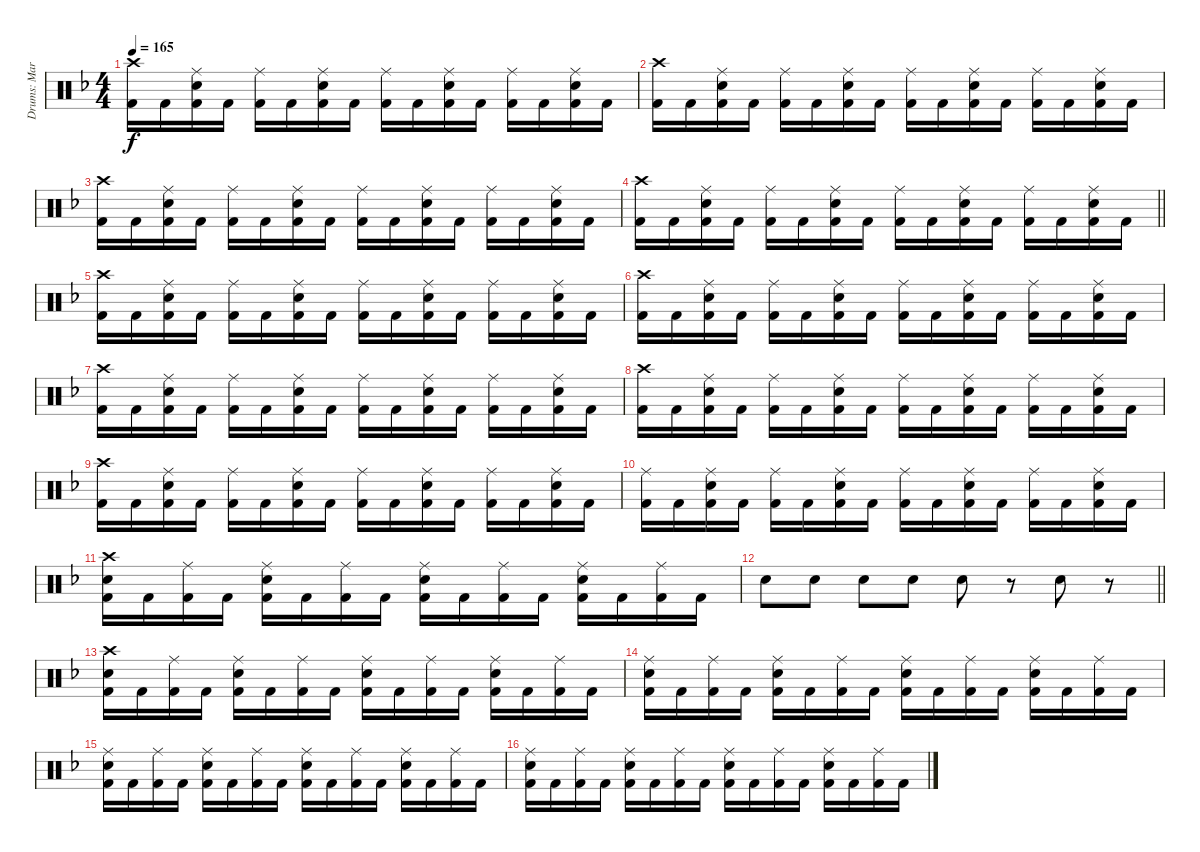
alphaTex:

\track ("Drums: Martin Herzinger" "Drums: Mar") {instrument percussion}
\staff {score}
\articulation defaults
\ts (4 4)
\tempo 165
\clef neutral
\ks dminor
("Crash high (hit)" "Kick (hit) 2").16{dy f} "Kick (hit) 2".16 ("Ride (middle)" "Snare (hit) 2" "Kick (hit) 2").16 "Kick (hit) 2".16 ("Ride (middle)" "Kick (hit) 2").16 "Kick (hit) 2".16 ("Ride (middle)" "Snare (hit) 2" "Kick (hit) 2").16 "Kick (hit) 2".16 ("Ride (middle)" "Kick (hit) 2").16 "Kick (hit) 2".16 ("Ride (middle)" "Snare (hit) 2" "Kick (hit) 2").16 "Kick (hit) 2".16 ("Ride (middle)" "Kick (hit) 2").16 "Kick (hit) 2".16 ("Ride (middle)" "Snare (hit) 2" "Kick (hit) 2").16 "Kick (hit) 2".16 |
("Crash high (hit)" "Kick (hit) 2").16 "Kick (hit) 2".16 ("Ride (middle)" "Snare (hit) 2" "Kick (hit) 2").16 "Kick (hit) 2".16 ("Ride (middle)" "Kick (hit) 2").16 "Kick (hit) 2".16 ("Ride (middle)" "Snare (hit) 2" "Kick (hit) 2").16 "Kick (hit) 2".16 ("Ride (middle)" "Kick (hit) 2").16 "Kick (hit) 2".16 ("Ride (middle)" "Snare (hit) 2" "Kick (hit) 2").16 "Kick (hit) 2".16 ("Ride (middle)" "Kick (hit) 2").16 "Kick (hit) 2".16 ("Ride (middle)" "Snare (hit) 2" "Kick (hit) 2").16 "Kick (hit) 2".16 |
("Crash high (hit)" "Kick (hit) 2").16 "Kick (hit) 2".16 ("Ride (middle)" "Snare (hit) 2" "Kick (hit) 2").16 "Kick (hit) 2".16 ("Ride (middle)" "Kick (hit) 2").16 "Kick (hit) 2".16 ("Ride (middle)" "Snare (hit) 2" "Kick (hit) 2").16 "Kick (hit) 2".16 ("Ride (middle)" "Kick (hit) 2").16 "Kick (hit) 2".16 ("Ride (middle)" "Snare (hit) 2" "Kick (hit) 2").16 "Kick (hit) 2".16 ("Ride (middle)" "Kick (hit) 2").16 "Kick (hit) 2".16 ("Ride (middle)" "Snare (hit) 2" "Kick (hit) 2").16 "Kick (hit) 2".16 |
\barLineRight lightlight
("Crash high (hit)" "Kick (hit) 2").16 "Kick (hit) 2".16 ("Ride (middle)" "Snare (hit) 2" "Kick (hit) 2").16 "Kick (hit) 2".16 ("Ride (middle)" "Kick (hit) 2").16 "Kick (hit) 2".16 ("Ride (middle)" "Snare (hit) 2" "Kick (hit) 2").16 "Kick (hit) 2".16 ("Ride (middle)" "Kick (hit) 2").16 "Kick (hit) 2".16 ("Ride (middle)" "Snare (hit) 2" "Kick (hit) 2").16 "Kick (hit) 2".16 ("Ride (middle)" "Kick (hit) 2").16 "Kick (hit) 2".16 ("Ride (middle)" "Snare (hit) 2" "Kick (hit) 2").16 "Kick (hit) 2".16 |
("Crash high (hit)" "Kick (hit) 2").16 "Kick (hit) 2".16 ("Ride (middle)" "Snare (hit) 2" "Kick (hit) 2").16 "Kick (hit) 2".16 ("Ride (middle)" "Kick (hit) 2").16 "Kick (hit) 2".16 ("Ride (middle)" "Snare (hit) 2" "Kick (hit) 2").16 "Kick (hit) 2".16 ("Ride (middle)" "Kick (hit) 2").16 "Kick (hit) 2".16 ("Ride (middle)" "Snare (hit) 2" "Kick (hit) 2").16 "Kick (hit) 2".16 ("Ride (middle)" "Kick (hit) 2").16 "Kick (hit) 2".16 ("Ride (middle)" "Snare (hit) 2" "Kick (hit) 2").16 "Kick (hit) 2".16 |
("Crash high (hit)" "Kick (hit) 2").16 "Kick (hit) 2".16 ("Ride (middle)" "Snare (hit) 2" "Kick (hit) 2").16 "Kick (hit) 2".16 ("Ride (middle)" "Kick (hit) 2").16 "Kick (hit) 2".16 ("Ride (middle)" "Snare (hit) 2" "Kick (hit) 2").16 "Kick (hit) 2".16 ("Ride (middle)" "Kick (hit) 2").16 "Kick (hit) 2".16 ("Ride (middle)" "Snare (hit) 2" "Kick (hit) 2").16 "Kick (hit) 2".16 ("Ride (middle)" "Kick (hit) 2").16 "Kick (hit) 2".16 ("Ride (middle)" "Snare (hit) 2" "Kick (hit) 2").16 "Kick (hit) 2".16 |
("Crash high (hit)" "Kick (hit) 2").16 "Kick (hit) 2".16 ("Ride (middle)" "Snare (hit) 2" "Kick (hit) 2").16 "Kick (hit) 2".16 ("Ride (middle)" "Kick (hit) 2").16 "Kick (hit) 2".16 ("Ride (middle)" "Snare (hit) 2" "Kick (hit) 2").16 "Kick (hit) 2".16 ("Ride (middle)" "Kick (hit) 2").16 "Kick (hit) 2".16 ("Ride (middle)" "Snare (hit) 2" "Kick (hit) 2").16 "Kick (hit) 2".16 ("Ride (middle)" "Kick (hit) 2").16 "Kick (hit) 2".16 ("Ride (middle)" "Snare (hit) 2" "Kick (hit) 2").16 "Kick (hit) 2".16 |
("Crash high (hit)" "Kick (hit) 2").16 "Kick (hit) 2".16 ("Ride (middle)" "Snare (hit) 2" "Kick (hit) 2").16 "Kick (hit) 2".16 ("Ride (middle)" "Kick (hit) 2").16 "Kick (hit) 2".16 ("Ride (middle)" "Snare (hit) 2" "Kick (hit) 2").16 "Kick (hit) 2".16 ("Ride (middle)" "Kick (hit) 2").16 "Kick (hit) 2".16 ("Ride (middle)" "Snare (hit) 2" "Kick (hit) 2").16 "Kick (hit) 2".16 ("Ride (middle)" "Kick (hit) 2").16 "Kick (hit) 2".16 ("Ride (middle)" "Snare (hit) 2" "Kick (hit) 2").16 "Kick (hit) 2".16 |
("Crash high (hit)" "Kick (hit) 2").16 "Kick (hit) 2".16 ("Ride (middle)" "Snare (hit) 2" "Kick (hit) 2").16 "Kick (hit) 2".16 ("Ride (middle)" "Kick (hit) 2").16 "Kick (hit) 2".16 ("Ride (middle)" "Snare (hit) 2" "Kick (hit) 2").16 "Kick (hit) 2".16 ("Ride (middle)" "Kick (hit) 2").16 "Kick (hit) 2".16 ("Ride (middle)" "Snare (hit) 2" "Kick (hit) 2").16 "Kick (hit) 2".16 ("Ride (middle)" "Kick (hit) 2").16 "Kick (hit) 2".16 ("Ride (middle)" "Snare (hit) 2" "Kick (hit) 2").16 "Kick (hit) 2".16 |
("Ride (middle)" "Kick (hit) 2").16 "Kick (hit) 2".16 ("Ride (middle)" "Snare (hit) 2" "Kick (hit) 2").16 "Kick (hit) 2".16 ("Ride (middle)" "Kick (hit) 2").16 "Kick (hit) 2".16 ("Ride (middle)" "Snare (hit) 2" "Kick (hit) 2").16 "Kick (hit) 2".16 ("Ride (middle)" "Kick (hit) 2").16 "Kick (hit) 2".16 ("Ride (middle)" "Snare (hit) 2" "Kick (hit) 2").16 "Kick (hit) 2".16 ("Ride (middle)" "Kick (hit) 2").16 "Kick (hit) 2".16 ("Ride (middle)" "Snare (hit) 2" "Kick (hit) 2").16 "Kick (hit) 2".16 |
("Crash high (hit)" "Snare (hit) 2" "Kick (hit) 2").16 "Kick (hit) 2".16 ("Ride (middle)" "Kick (hit) 2").16 "Kick (hit) 2".16 ("Ride (middle)" "Snare (hit) 2" "Kick (hit) 2").16 "Kick (hit) 2".16 ("Ride (middle)" "Kick (hit) 2").16 "Kick (hit) 2".16 ("Ride (middle)" "Snare (hit) 2" "Kick (hit) 2").16 "Kick (hit) 2".16 ("Ride (middle)" "Kick (hit) 2").16 "Kick (hit) 2".16 ("Ride (middle)" "Snare (hit) 2" "Kick (hit) 2").16 "Kick (hit) 2".16 ("Ride (middle)" "Kick (hit) 2").16 "Kick (hit) 2".16 |
\barLineRight lightlight "Snare (hit) 2".8 "Snare (hit) 2".8 "Snare (hit) 2".8 "Snare (hit) 2".8 "Snare (hit) 2".8
r.8 "Snare (hit) 2".8 r.8 |
("Crash high (hit)" "Snare (hit) 2" "Kick (hit) 2").16 "Kick (hit) 2".16 ("Ride (middle)" "Kick (hit) 2").16 "Kick (hit) 2".16 ("Ride (middle)" "Snare (hit) 2" "Kick (hit) 2").16 "Kick (hit) 2".16 ("Ride (middle)" "Kick (hit) 2").16 "Kick (hit) 2".16 ("Ride (middle)" "Snare (hit) 2" "Kick (hit) 2").16 "Kick (hit) 2".16 ("Ride (middle)" "Kick (hit) 2").16 "Kick (hit) 2".16 ("Ride (middle)" "Snare (hit) 2" "Kick (hit) 2").16 "Kick (hit) 2".16 ("Ride (middle)" "Kick (hit) 2").16 "Kick (hit) 2".16 |
("Ride (middle)" "Snare (hit) 2" "Kick (hit) 2").16 "Kick (hit) 2".16 ("Ride (middle)" "Kick (hit) 2").16 "Kick (hit) 2".16 ("Ride (middle)" "Snare (hit) 2" "Kick (hit) 2").16 "Kick (hit) 2".16 ("Ride (middle)" "Kick (hit) 2").16 "Kick (hit) 2".16 ("Ride (middle)" "Snare (hit) 2" "Kick (hit) 2").16 "Kick (hit) 2".16 ("Ride (middle)" "Kick (hit) 2").16 "Kick (hit) 2".16 ("Ride (middle)" "Snare (hit) 2" "Kick (hit) 2").16 "Kick (hit) 2".16 ("Ride (middle)" "Kick (hit) 2").16 "Kick (hit) 2".16 |
("Ride (middle)" "Snare (hit) 2" "Kick (hit) 2").16 "Kick (hit) 2".16 ("Ride (middle)" "Kick (hit) 2").16 "Kick (hit) 2".16 ("Ride (middle)" "Snare (hit) 2" "Kick (hit) 2").16 "Kick (hit) 2".16 ("Ride (middle)" "Kick (hit) 2").16 "Kick (hit) 2".16 ("Ride (middle)" "Snare (hit) 2" "Kick (hit) 2").16 "Kick (hit) 2".16 ("Ride (middle)" "Kick (hit) 2").16 "Kick (hit) 2".16 ("Ride (middle)" "Snare (hit) 2" "Kick (hit) 2").16 "Kick (hit) 2".16 ("Ride (middle)" "Kick (hit) 2").16 "Kick (hit) 2".16 |
("Ride (middle)" "Snare (hit) 2" "Kick (hit) 2").16 "Kick (hit) 2".16 ("Ride (middle)" "Kick (hit) 2").16 "Kick (hit) 2".16 ("Ride (middle)" "Snare (hit) 2" "Kick (hit) 2").16 "Kick (hit) 2".16 ("Ride (middle)" "Kick (hit) 2").16 "Kick (hit) 2".16 ("Ride (middle)" "Snare (hit) 2" "Kick (hit) 2").16 "Kick (hit) 2".16 ("Ride (middle)" "Kick (hit) 2").16 "Kick (hit) 2".16 ("Ride (middle)" "Snare (hit) 2" "Kick (hit) 2").16 "Kick (hit) 2".16 ("Ride (middle)" "Kick (hit) 2").16 "Kick (hit) 2".16
